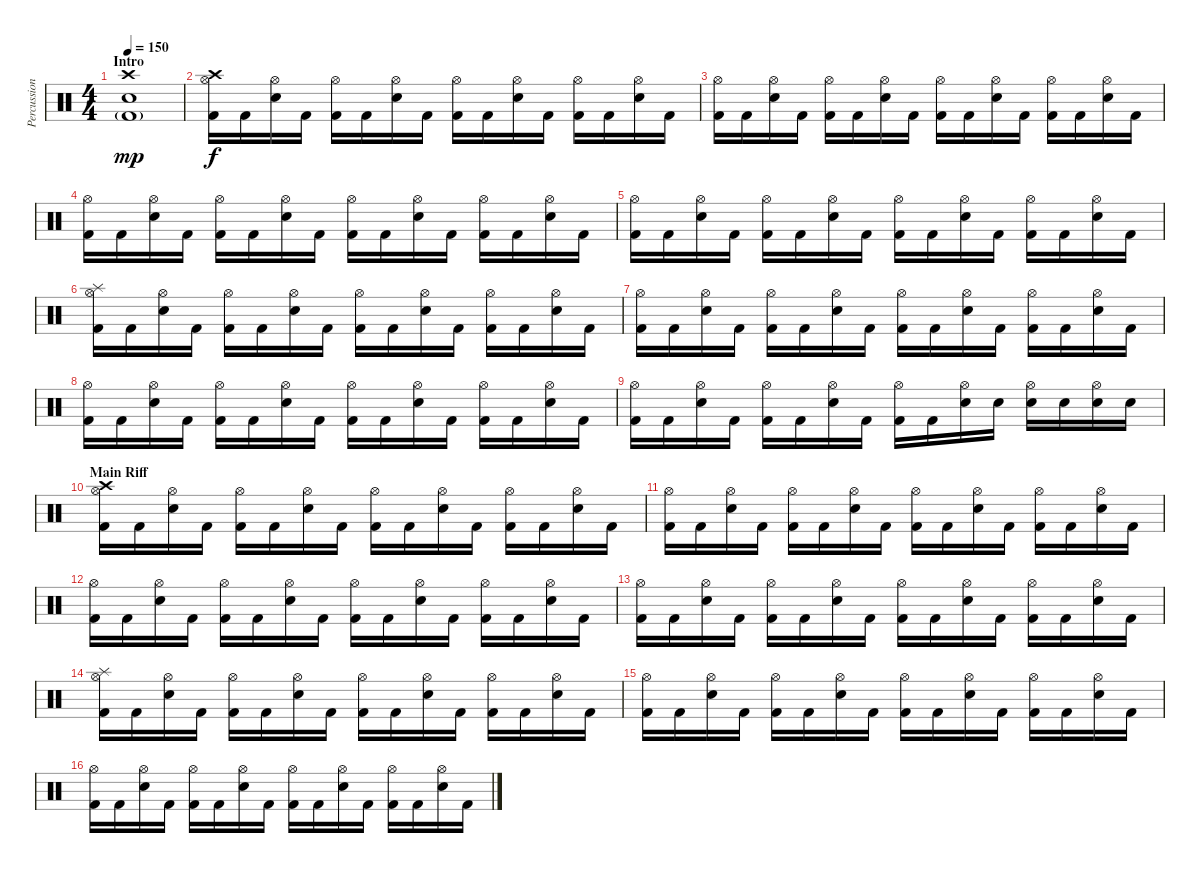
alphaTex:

\track ("Percussions" "Percussion") {instrument percussion}
\staff {score}
\articulation defaults
\ts (4 4)
\section ("" "Intro")
\tempo 150
\clef neutral
\ks c
("Crash high (hit)" "Electric Snare (hit)" "Kick (hit) 2"{g}).1{dy mp} |
("Crash high (hit)" "Hi-Hat (open)" "Kick (hit) 2").16{dy f} "Kick (hit) 2".16 ("Hi-Hat (open)" "Electric Snare (hit)").16 "Kick (hit) 2".16 ("Hi-Hat (open)" "Kick (hit) 2").16 "Kick (hit) 2".16 ("Hi-Hat (open)" "Electric Snare (hit)").16 "Kick (hit) 2".16 ("Hi-Hat (open)" "Kick (hit) 2").16 "Kick (hit) 2".16 ("Hi-Hat (open)" "Electric Snare (hit)").16 "Kick (hit) 2".16 ("Hi-Hat (open)" "Kick (hit) 2").16 "Kick (hit) 2".16 ("Hi-Hat (open)" "Electric Snare (hit)").16 "Kick (hit) 2".16 |
("Hi-Hat (open)" "Kick (hit) 2").16 "Kick (hit) 2".16 ("Hi-Hat (open)" "Electric Snare (hit)").16 "Kick (hit) 2".16 ("Hi-Hat (open)" "Kick (hit) 2").16 "Kick (hit) 2".16 ("Hi-Hat (open)" "Electric Snare (hit)").16 "Kick (hit) 2".16 ("Hi-Hat (open)" "Kick (hit) 2").16 "Kick (hit) 2".16 ("Hi-Hat (open)" "Electric Snare (hit)").16 "Kick (hit) 2".16 ("Hi-Hat (open)" "Kick (hit) 2").16 "Kick (hit) 2".16 ("Hi-Hat (open)" "Electric Snare (hit)").16 "Kick (hit) 2".16 |
("Hi-Hat (open)" "Kick (hit) 2").16 "Kick (hit) 2".16 ("Hi-Hat (open)" "Electric Snare (hit)").16 "Kick (hit) 2".16 ("Hi-Hat (open)" "Kick (hit) 2").16 "Kick (hit) 2".16 ("Hi-Hat (open)" "Electric Snare (hit)").16 "Kick (hit) 2".16 ("Hi-Hat (open)" "Kick (hit) 2").16 "Kick (hit) 2".16 ("Hi-Hat (open)" "Electric Snare (hit)").16 "Kick (hit) 2".16 ("Hi-Hat (open)" "Kick (hit) 2").16 "Kick (hit) 2".16 ("Hi-Hat (open)" "Electric Snare (hit)").16 "Kick (hit) 2".16 |
("Hi-Hat (open)" "Kick (hit) 2").16 "Kick (hit) 2".16 ("Hi-Hat (open)" "Electric Snare (hit)").16 "Kick (hit) 2".16 ("Hi-Hat (open)" "Kick (hit) 2").16 "Kick (hit) 2".16 ("Hi-Hat (open)" "Electric Snare (hit)").16 "Kick (hit) 2".16 ("Hi-Hat (open)" "Kick (hit) 2").16 "Kick (hit) 2".16 ("Hi-Hat (open)" "Electric Snare (hit)").16 "Kick (hit) 2".16 ("Hi-Hat (open)" "Kick (hit) 2").16 "Kick (hit) 2".16 ("Hi-Hat (open)" "Electric Snare (hit)").16 "Kick (hit) 2".16 |
("Splash (hit)" "Hi-Hat (open)" "Kick (hit) 2").16 "Kick (hit) 2".16 ("Hi-Hat (open)" "Electric Snare (hit)").16 "Kick (hit) 2".16 ("Hi-Hat (open)" "Kick (hit) 2").16 "Kick (hit) 2".16 ("Hi-Hat (open)" "Electric Snare (hit)").16 "Kick (hit) 2".16 ("Hi-Hat (open)" "Kick (hit) 2").16 "Kick (hit) 2".16 ("Hi-Hat (open)" "Electric Snare (hit)").16 "Kick (hit) 2".16 ("Hi-Hat (open)" "Kick (hit) 2").16 "Kick (hit) 2".16 ("Hi-Hat (open)" "Electric Snare (hit)").16 "Kick (hit) 2".16 |
("Hi-Hat (open)" "Kick (hit) 2").16 "Kick (hit) 2".16 ("Hi-Hat (open)" "Electric Snare (hit)").16 "Kick (hit) 2".16 ("Hi-Hat (open)" "Kick (hit) 2").16 "Kick (hit) 2".16 ("Hi-Hat (open)" "Electric Snare (hit)").16 "Kick (hit) 2".16 ("Hi-Hat (open)" "Kick (hit) 2").16 "Kick (hit) 2".16 ("Hi-Hat (open)" "Electric Snare (hit)").16 "Kick (hit) 2".16 ("Hi-Hat (open)" "Kick (hit) 2").16 "Kick (hit) 2".16 ("Hi-Hat (open)" "Electric Snare (hit)").16 "Kick (hit) 2".16 |
("Hi-Hat (open)" "Kick (hit) 2").16 "Kick (hit) 2".16 ("Hi-Hat (open)" "Electric Snare (hit)").16 "Kick (hit) 2".16 ("Hi-Hat (open)" "Kick (hit) 2").16 "Kick (hit) 2".16 ("Hi-Hat (open)" "Electric Snare (hit)").16 "Kick (hit) 2".16 ("Hi-Hat (open)" "Kick (hit) 2").16 "Kick (hit) 2".16 ("Hi-Hat (open)" "Electric Snare (hit)").16 "Kick (hit) 2".16 ("Hi-Hat (open)" "Kick (hit) 2").16 "Kick (hit) 2".16 ("Hi-Hat (open)" "Electric Snare (hit)").16 "Kick (hit) 2".16 |
("Hi-Hat (open)" "Kick (hit) 2").16 "Kick (hit) 2".16 ("Hi-Hat (open)" "Electric Snare (hit)").16 "Kick (hit) 2".16 ("Hi-Hat (open)" "Kick (hit) 2").16 "Kick (hit) 2".16 ("Hi-Hat (open)" "Electric Snare (hit)").16 "Kick (hit) 2".16 ("Hi-Hat (open)" "Kick (hit) 2").16 "Kick (hit) 2".16 ("Hi-Hat (open)" "Electric Snare (hit)").16 "Electric Snare (hit)".16 ("Hi-Hat (open)" "Electric Snare (hit)").16 "Electric Snare (hit)".16 ("Hi-Hat (open)" "Electric Snare (hit)").16 "Electric Snare (hit)".16 |
\section ("" "Main Riff")
("Crash high (hit)" "Hi-Hat (open)" "Kick (hit) 2").16 "Kick (hit) 2".16 ("Hi-Hat (open)" "Electric Snare (hit)").16 "Kick (hit) 2".16 ("Hi-Hat (open)" "Kick (hit) 2").16 "Kick (hit) 2".16 ("Hi-Hat (open)" "Electric Snare (hit)").16 "Kick (hit) 2".16 ("Hi-Hat (open)" "Kick (hit) 2").16 "Kick (hit) 2".16 ("Hi-Hat (open)" "Electric Snare (hit)").16 "Kick (hit) 2".16 ("Hi-Hat (open)" "Kick (hit) 2").16 "Kick (hit) 2".16 ("Hi-Hat (open)" "Electric Snare (hit)").16 "Kick (hit) 2".16 |
("Hi-Hat (open)" "Kick (hit) 2").16 "Kick (hit) 2".16 ("Hi-Hat (open)" "Electric Snare (hit)").16 "Kick (hit) 2".16 ("Hi-Hat (open)" "Kick (hit) 2").16 "Kick (hit) 2".16 ("Hi-Hat (open)" "Electric Snare (hit)").16 "Kick (hit) 2".16 ("Hi-Hat (open)" "Kick (hit) 2").16 "Kick (hit) 2".16 ("Hi-Hat (open)" "Electric Snare (hit)").16 "Kick (hit) 2".16 ("Hi-Hat (open)" "Kick (hit) 2").16 "Kick (hit) 2".16 ("Hi-Hat (open)" "Electric Snare (hit)").16 "Kick (hit) 2".16 |
("Hi-Hat (open)" "Kick (hit) 2").16 "Kick (hit) 2".16 ("Hi-Hat (open)" "Electric Snare (hit)").16 "Kick (hit) 2".16 ("Hi-Hat (open)" "Kick (hit) 2").16 "Kick (hit) 2".16 ("Hi-Hat (open)" "Electric Snare (hit)").16 "Kick (hit) 2".16 ("Hi-Hat (open)" "Kick (hit) 2").16 "Kick (hit) 2".16 ("Hi-Hat (open)" "Electric Snare (hit)").16 "Kick (hit) 2".16 ("Hi-Hat (open)" "Kick (hit) 2").16 "Kick (hit) 2".16 ("Hi-Hat (open)" "Electric Snare (hit)").16 "Kick (hit) 2".16 |
("Hi-Hat (open)" "Kick (hit) 2").16 "Kick (hit) 2".16 ("Hi-Hat (open)" "Electric Snare (hit)").16 "Kick (hit) 2".16 ("Hi-Hat (open)" "Kick (hit) 2").16 "Kick (hit) 2".16 ("Hi-Hat (open)" "Electric Snare (hit)").16 "Kick (hit) 2".16 ("Hi-Hat (open)" "Kick (hit) 2").16 "Kick (hit) 2".16 ("Hi-Hat (open)" "Electric Snare (hit)").16 "Kick (hit) 2".16 ("Hi-Hat (open)" "Kick (hit) 2").16 "Kick (hit) 2".16 ("Hi-Hat (open)" "Electric Snare (hit)").16 "Kick (hit) 2".16 |
("Splash (hit)" "Hi-Hat (open)" "Kick (hit) 2").16 "Kick (hit) 2".16 ("Hi-Hat (open)" "Electric Snare (hit)").16 "Kick (hit) 2".16 ("Hi-Hat (open)" "Kick (hit) 2").16 "Kick (hit) 2".16 ("Hi-Hat (open)" "Electric Snare (hit)").16 "Kick (hit) 2".16 ("Hi-Hat (open)" "Kick (hit) 2").16 "Kick (hit) 2".16 ("Hi-Hat (open)" "Electric Snare (hit)").16 "Kick (hit) 2".16 ("Hi-Hat (open)" "Kick (hit) 2").16 "Kick (hit) 2".16 ("Hi-Hat (open)" "Electric Snare (hit)").16 "Kick (hit) 2".16 |
("Hi-Hat (open)" "Kick (hit) 2").16 "Kick (hit) 2".16 ("Hi-Hat (open)" "Electric Snare (hit)").16 "Kick (hit) 2".16 ("Hi-Hat (open)" "Kick (hit) 2").16 "Kick (hit) 2".16 ("Hi-Hat (open)" "Electric Snare (hit)").16 "Kick (hit) 2".16 ("Hi-Hat (open)" "Kick (hit) 2").16 "Kick (hit) 2".16 ("Hi-Hat (open)" "Electric Snare (hit)").16 "Kick (hit) 2".16 ("Hi-Hat (open)" "Kick (hit) 2").16 "Kick (hit) 2".16 ("Hi-Hat (open)" "Electric Snare (hit)").16 "Kick (hit) 2".16 |
("Hi-Hat (open)" "Kick (hit) 2").16 "Kick (hit) 2".16 ("Hi-Hat (open)" "Electric Snare (hit)").16 "Kick (hit) 2".16 ("Hi-Hat (open)" "Kick (hit) 2").16 "Kick (hit) 2".16 ("Hi-Hat (open)" "Electric Snare (hit)").16 "Kick (hit) 2".16 ("Hi-Hat (open)" "Kick (hit) 2").16 "Kick (hit) 2".16 ("Hi-Hat (open)" "Electric Snare (hit)").16 "Kick (hit) 2".16 ("Hi-Hat (open)" "Kick (hit) 2").16 "Kick (hit) 2".16 ("Hi-Hat (open)" "Electric Snare (hit)").16 "Kick (hit) 2".16
